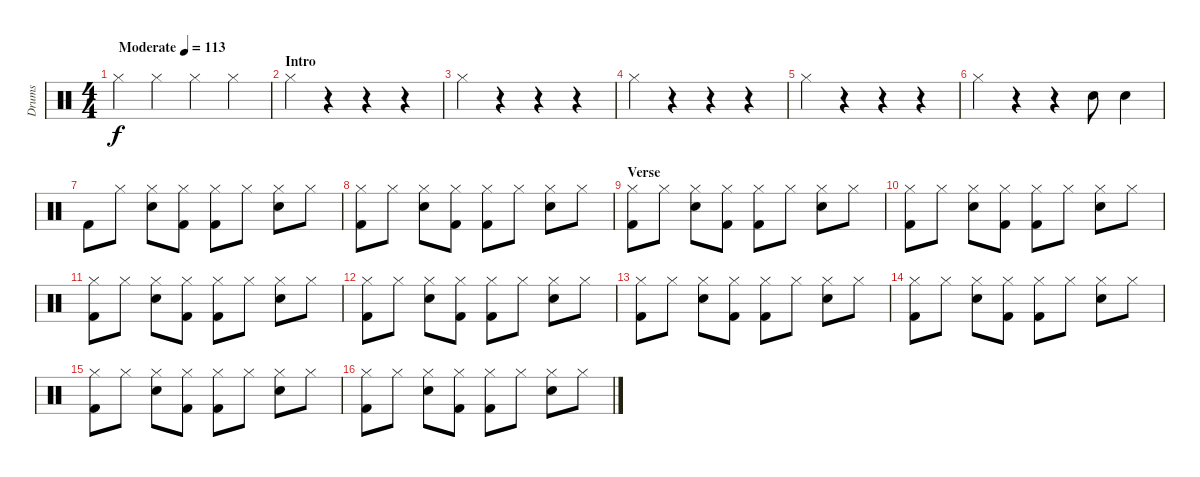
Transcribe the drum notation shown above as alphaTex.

\track ("Drums" "Drums") {instrument percussion}
\staff {score}
\articulation defaults
\ts (4 4)
\tempo (113 "Moderate")
\clef neutral
\ks c "Hi-Hat (closed)".4{dy f} "Hi-Hat (closed)".4 "Hi-Hat (closed)".4 "Hi-Hat (closed)".4
|
\section ("" "Intro")
"Hi-Hat (closed)".4 r.4 r.4 r.4 |
"Hi-Hat (closed)".4 r.4 r.4 r.4 |
"Hi-Hat (closed)".4 r.4 r.4 r.4 |
"Hi-Hat (closed)".4 r.4 r.4 r.4 |
"Hi-Hat (closed)".4 r.4 r.4 "Snare (hit) 2".8 "Snare (hit) 2".4 |
"Kick (hit) 2".8 "Hi-Hat (closed)".8 ("Hi-Hat (closed)" "Snare (hit) 2").8 ("Hi-Hat (closed)" "Kick (hit) 2").8 ("Hi-Hat (closed)" "Kick (hit) 2").8 "Hi-Hat (closed)".8 ("Hi-Hat (closed)" "Snare (hit) 2").8 "Hi-Hat (closed)".8 |
("Hi-Hat (closed)" "Kick (hit) 2").8 "Hi-Hat (closed)".8 ("Hi-Hat (closed)" "Snare (hit) 2").8 ("Hi-Hat (closed)" "Kick (hit) 2").8 ("Hi-Hat (closed)" "Kick (hit) 2").8 "Hi-Hat (closed)".8 ("Hi-Hat (closed)" "Snare (hit) 2").8 "Hi-Hat (closed)".8 |
\section ("" "Verse")
("Hi-Hat (closed)" "Kick (hit) 2").8 "Hi-Hat (closed)".8 ("Hi-Hat (closed)" "Snare (hit) 2").8 ("Hi-Hat (closed)" "Kick (hit) 2").8 ("Hi-Hat (closed)" "Kick (hit) 2").8 "Hi-Hat (closed)".8 ("Hi-Hat (closed)" "Snare (hit) 2").8 "Hi-Hat (closed)".8 |
("Hi-Hat (closed)" "Kick (hit) 2").8 "Hi-Hat (closed)".8 ("Hi-Hat (closed)" "Snare (hit) 2").8 ("Hi-Hat (closed)" "Kick (hit) 2").8 ("Hi-Hat (closed)" "Kick (hit) 2").8 "Hi-Hat (closed)".8 ("Hi-Hat (closed)" "Snare (hit) 2").8 "Hi-Hat (closed)".8 |
("Hi-Hat (closed)" "Kick (hit) 2").8 "Hi-Hat (closed)".8 ("Hi-Hat (closed)" "Snare (hit) 2").8 ("Hi-Hat (closed)" "Kick (hit) 2").8 ("Hi-Hat (closed)" "Kick (hit) 2").8 "Hi-Hat (closed)".8 ("Hi-Hat (closed)" "Snare (hit) 2").8 "Hi-Hat (closed)".8 |
("Hi-Hat (closed)" "Kick (hit) 2").8 "Hi-Hat (closed)".8 ("Hi-Hat (closed)" "Snare (hit) 2").8 ("Hi-Hat (closed)" "Kick (hit) 2").8 ("Hi-Hat (closed)" "Kick (hit) 2").8 "Hi-Hat (closed)".8 ("Hi-Hat (closed)" "Snare (hit) 2").8 "Hi-Hat (closed)".8 |
("Hi-Hat (closed)" "Kick (hit) 2").8 "Hi-Hat (closed)".8 ("Hi-Hat (closed)" "Snare (hit) 2").8 ("Hi-Hat (closed)" "Kick (hit) 2").8 ("Hi-Hat (closed)" "Kick (hit) 2").8 "Hi-Hat (closed)".8 ("Hi-Hat (closed)" "Snare (hit) 2").8 "Hi-Hat (closed)".8 |
("Hi-Hat (closed)" "Kick (hit) 2").8 "Hi-Hat (closed)".8 ("Hi-Hat (closed)" "Snare (hit) 2").8 ("Hi-Hat (closed)" "Kick (hit) 2").8 ("Hi-Hat (closed)" "Kick (hit) 2").8 "Hi-Hat (closed)".8 ("Hi-Hat (closed)" "Snare (hit) 2").8 "Hi-Hat (closed)".8 |
("Hi-Hat (closed)" "Kick (hit) 2").8 "Hi-Hat (closed)".8 ("Hi-Hat (closed)" "Snare (hit) 2").8 ("Hi-Hat (closed)" "Kick (hit) 2").8 ("Hi-Hat (closed)" "Kick (hit) 2").8 "Hi-Hat (closed)".8 ("Hi-Hat (closed)" "Snare (hit) 2").8 "Hi-Hat (closed)".8 |
("Hi-Hat (closed)" "Kick (hit) 2").8 "Hi-Hat (closed)".8 ("Hi-Hat (closed)" "Snare (hit) 2").8 ("Hi-Hat (closed)" "Kick (hit) 2").8 ("Hi-Hat (closed)" "Kick (hit) 2").8 "Hi-Hat (closed)".8 ("Hi-Hat (closed)" "Snare (hit) 2").8 "Hi-Hat (closed)".8
